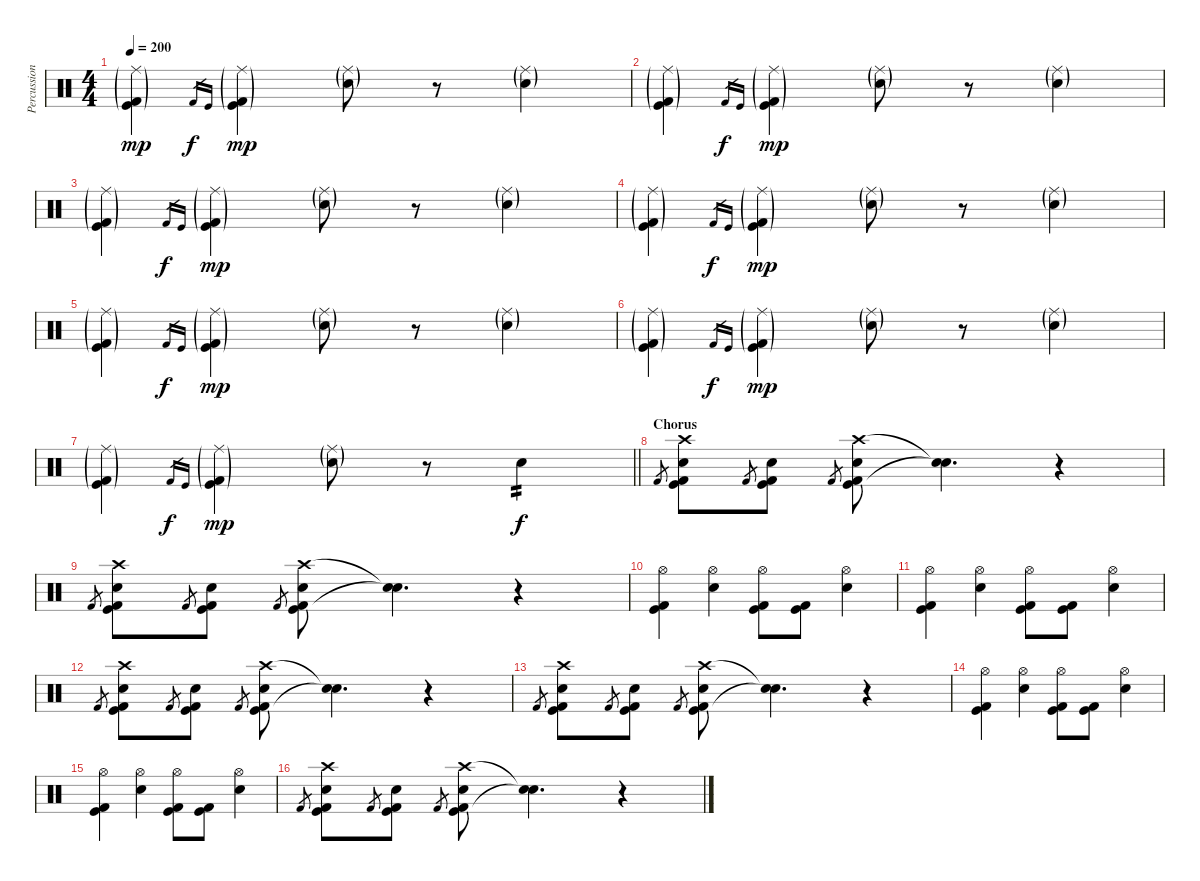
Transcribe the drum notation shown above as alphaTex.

\track ("Percussion" "Percussion") {instrument percussion}
\staff {score}
\articulation defaults
\ts (4 4)
\tempo 200
\clef neutral
\ks c
("Ride (middle)"{g} "Kick (hit) 2"{g} "Kick (hit)"{g}).4{dy mp} "Kick (hit) 2".16{gr dy f} "Kick (hit)".16{gr} ("Ride (middle)"{g} "Kick (hit) 2"{g} "Kick (hit)"{g}).4{dy mp} ("Ride (middle)"{g} "Snare (hit) 2"{g}).8 r.8 ("Ride (middle)"{g} "Snare (hit) 2"{g}).4 |
("Ride (middle)"{g} "Kick (hit) 2"{g} "Kick (hit)"{g}).4 "Kick (hit) 2".16{gr dy f} "Kick (hit)".16{gr} ("Ride (middle)"{g} "Kick (hit) 2"{g} "Kick (hit)"{g}).4{dy mp} ("Ride (middle)"{g} "Snare (hit) 2"{g}).8 r.8 ("Ride (middle)"{g} "Snare (hit) 2"{g}).4 |
("Ride (middle)"{g} "Kick (hit) 2"{g} "Kick (hit)"{g}).4 "Kick (hit) 2".16{gr dy f} "Kick (hit)".16{gr} ("Ride (middle)"{g} "Kick (hit) 2"{g} "Kick (hit)"{g}).4{dy mp} ("Ride (middle)"{g} "Snare (hit) 2"{g}).8 r.8 ("Ride (middle)"{g} "Snare (hit) 2"{g}).4 |
("Ride (middle)"{g} "Kick (hit) 2"{g} "Kick (hit)"{g}).4 "Kick (hit) 2".16{gr dy f} "Kick (hit)".16{gr} ("Ride (middle)"{g} "Kick (hit) 2"{g} "Kick (hit)"{g}).4{dy mp} ("Ride (middle)"{g} "Snare (hit) 2"{g}).8 r.8 ("Ride (middle)"{g} "Snare (hit) 2"{g}).4 |
("Ride (middle)"{g} "Kick (hit) 2"{g} "Kick (hit)"{g}).4 "Kick (hit) 2".16{gr dy f} "Kick (hit)".16{gr} ("Ride (middle)"{g} "Kick (hit) 2"{g} "Kick (hit)"{g}).4{dy mp} ("Ride (middle)"{g} "Snare (hit) 2"{g}).8 r.8 ("Ride (middle)"{g} "Snare (hit) 2"{g}).4 |
("Ride (middle)"{g} "Kick (hit) 2"{g} "Kick (hit)"{g}).4 "Kick (hit) 2".16{gr dy f} "Kick (hit)".16{gr} ("Ride (middle)"{g} "Kick (hit) 2"{g} "Kick (hit)"{g}).4{dy mp} ("Ride (middle)"{g} "Snare (hit) 2"{g}).8 r.8 ("Ride (middle)"{g} "Snare (hit) 2"{g}).4 |
\barLineRight lightlight
("Ride (middle)"{g} "Kick (hit) 2"{g} "Kick (hit)"{g}).4 "Kick (hit) 2".16{gr dy f} "Kick (hit)".16{gr} ("Ride (middle)"{g} "Kick (hit) 2"{g} "Kick (hit)"{g}).4{dy mp} ("Ride (middle)"{g} "Snare (hit) 2"{g}).8 r.8 "Snare (hit) 2".4{tp 2 dy f volume 16} |
\section ("" "Chorus")
"Kick (hit) 2".8{gr} ("Crash high (hit)" "Kick (hit)" "Snare (hit) 2" "Kick (hit) 2").8 "Kick (hit) 2".8{gr} ("Kick (hit)" "Snare (hit) 2" "Kick (hit) 2").8 "Kick (hit) 2".8{gr} ("Crash high (hit)" "Kick (hit)" "Snare (hit) 2" "Kick (hit) 2").8 ("Snare (hit)"{t} "Snare (hit)"{t}).4{d} r.4 |
"Kick (hit) 2".8{gr} ("Crash high (hit)" "Kick (hit)" "Snare (hit) 2" "Kick (hit) 2").8 "Kick (hit) 2".8{gr} ("Kick (hit)" "Snare (hit) 2" "Kick (hit) 2").8 "Kick (hit) 2".8{gr} ("Crash high (hit)" "Kick (hit)" "Snare (hit) 2" "Kick (hit) 2").8 ("Snare (hit)"{t} "Snare (hit)"{t}).4{d} r.4 |
("Hi-Hat (open)" "Kick (hit)" "Kick (hit) 2").4 ("Hi-Hat (open)" "Snare (hit) 2").4 ("Hi-Hat (open)" "Kick (hit)" "Kick (hit) 2").8 ("Kick (hit)" "Kick (hit) 2").8 ("Hi-Hat (open)" "Snare (hit) 2").4 |
("Hi-Hat (open)" "Kick (hit)" "Kick (hit) 2").4 ("Hi-Hat (open)" "Snare (hit) 2").4 ("Hi-Hat (open)" "Kick (hit)" "Kick (hit) 2").8 ("Kick (hit)" "Kick (hit) 2").8 ("Hi-Hat (open)" "Snare (hit) 2").4 |
"Kick (hit) 2".8{gr} ("Crash high (hit)" "Kick (hit)" "Snare (hit) 2" "Kick (hit) 2").8 "Kick (hit) 2".8{gr} ("Kick (hit)" "Snare (hit) 2" "Kick (hit) 2").8 "Kick (hit) 2".8{gr} ("Crash high (hit)" "Kick (hit)" "Snare (hit) 2" "Kick (hit) 2").8 ("Snare (hit)"{t} "Snare (hit)"{t}).4{d} r.4 |
"Kick (hit) 2".8{gr} ("Crash high (hit)" "Kick (hit)" "Snare (hit) 2" "Kick (hit) 2").8 "Kick (hit) 2".8{gr} ("Kick (hit)" "Snare (hit) 2" "Kick (hit) 2").8 "Kick (hit) 2".8{gr} ("Crash high (hit)" "Kick (hit)" "Snare (hit) 2" "Kick (hit) 2").8 ("Snare (hit)"{t} "Snare (hit)"{t}).4{d} r.4 |
("Hi-Hat (open)" "Kick (hit)" "Kick (hit) 2").4 ("Hi-Hat (open)" "Snare (hit) 2").4 ("Hi-Hat (open)" "Kick (hit)" "Kick (hit) 2").8 ("Kick (hit)" "Kick (hit) 2").8 ("Hi-Hat (open)" "Snare (hit) 2").4 |
("Hi-Hat (open)" "Kick (hit)" "Kick (hit) 2").4 ("Hi-Hat (open)" "Snare (hit) 2").4 ("Hi-Hat (open)" "Kick (hit)" "Kick (hit) 2").8 ("Kick (hit)" "Kick (hit) 2").8 ("Hi-Hat (open)" "Snare (hit) 2").4 |
"Kick (hit) 2".8{gr} ("Crash high (hit)" "Kick (hit)" "Snare (hit) 2" "Kick (hit) 2").8 "Kick (hit) 2".8{gr} ("Kick (hit)" "Snare (hit) 2" "Kick (hit) 2").8 "Kick (hit) 2".8{gr} ("Crash high (hit)" "Kick (hit)" "Snare (hit) 2" "Kick (hit) 2").8 ("Snare (hit)"{t} "Snare (hit)"{t}).4{d} r.4
